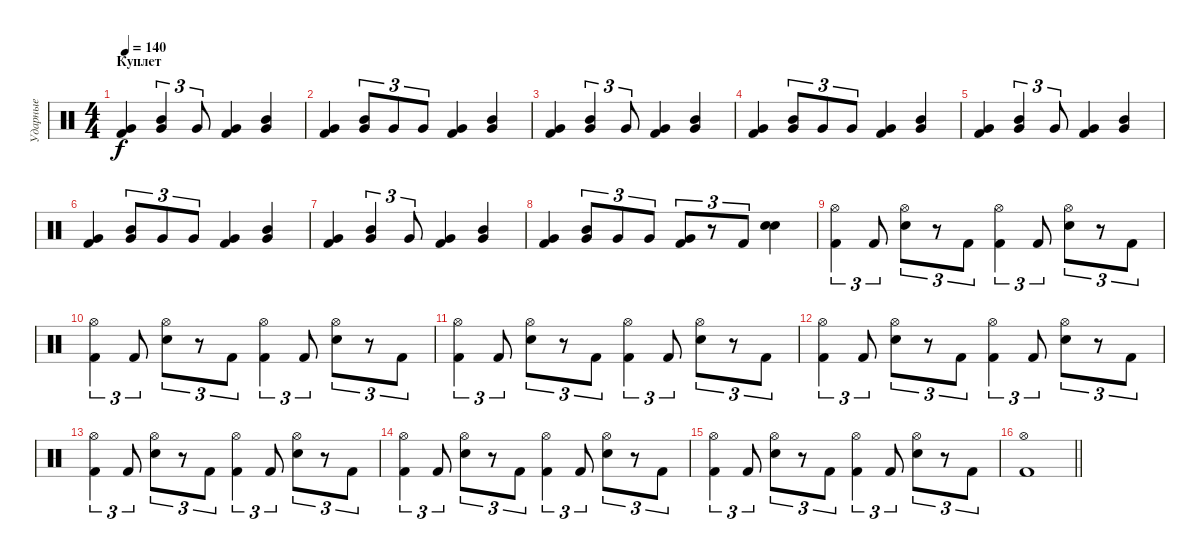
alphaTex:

\track ("Ударные" "Ударные") {instrument percussion}
\staff {score}
\articulation defaults
\ts (4 4)
\section ("" "Куплет")
\tempo 140
\clef neutral
\ks c
("Very Low Tom (hit)" "Kick (hit) 2").4{dy f} ("Mid Tom (hit)" "Very Low Tom (hit)").4{tu (3 2)} "Very Low Tom (hit)".8{tu (3 2)} ("Very Low Tom (hit)" "Kick (hit) 2").4 ("Mid Tom (hit)" "Very Low Tom (hit)").4 |
("Very Low Tom (hit)" "Kick (hit) 2").4 ("Mid Tom (hit)" "Very Low Tom (hit)").8{tu (3 2)} "Very Low Tom (hit)".8{tu (3 2)} "Very Low Tom (hit)".8{tu (3 2)} ("Very Low Tom (hit)" "Kick (hit) 2").4 ("Mid Tom (hit)" "Very Low Tom (hit)").4 |
("Very Low Tom (hit)" "Kick (hit) 2").4 ("Mid Tom (hit)" "Very Low Tom (hit)").4{tu (3 2)} "Very Low Tom (hit)".8{tu (3 2)} ("Very Low Tom (hit)" "Kick (hit) 2").4 ("Mid Tom (hit)" "Very Low Tom (hit)").4 |
("Very Low Tom (hit)" "Kick (hit) 2").4 ("Mid Tom (hit)" "Very Low Tom (hit)").8{tu (3 2)} "Very Low Tom (hit)".8{tu (3 2)} "Very Low Tom (hit)".8{tu (3 2)} ("Very Low Tom (hit)" "Kick (hit) 2").4 ("Mid Tom (hit)" "Very Low Tom (hit)").4 |
("Very Low Tom (hit)" "Kick (hit) 2").4 ("Mid Tom (hit)" "Very Low Tom (hit)").4{tu (3 2)} "Very Low Tom (hit)".8{tu (3 2)} ("Very Low Tom (hit)" "Kick (hit) 2").4 ("Mid Tom (hit)" "Very Low Tom (hit)").4 |
("Very Low Tom (hit)" "Kick (hit) 2").4 ("Mid Tom (hit)" "Very Low Tom (hit)").8{tu (3 2)} "Very Low Tom (hit)".8{tu (3 2)} "Very Low Tom (hit)".8{tu (3 2)} ("Very Low Tom (hit)" "Kick (hit) 2").4 ("Mid Tom (hit)" "Very Low Tom (hit)").4 |
("Very Low Tom (hit)" "Kick (hit) 2").4 ("Mid Tom (hit)" "Very Low Tom (hit)").4{tu (3 2)} "Very Low Tom (hit)".8{tu (3 2)} ("Very Low Tom (hit)" "Kick (hit) 2").4 ("Mid Tom (hit)" "Very Low Tom (hit)").4 |
("Very Low Tom (hit)" "Kick (hit) 2").4 ("Mid Tom (hit)" "Very Low Tom (hit)").8{tu (3 2)} "Very Low Tom (hit)".8{tu (3 2)} "Very Low Tom (hit)".8{tu (3 2)} ("Very Low Tom (hit)" "Kick (hit) 2").8{tu (3 2)} r.8{tu (3 2)} "Kick (hit) 2".8{tu (3 2)} ("Electric Snare (hit)" "Electric Snare (hit)").4 |
("Hi-Hat (open)" "Kick (hit) 2").4{tu (3 2)} "Kick (hit) 2".8{tu (3 2)} ("Hi-Hat (open)" "Electric Snare (hit)").8{tu (3 2)} r.8{tu (3 2)} "Kick (hit) 2".8{tu (3 2)} ("Hi-Hat (open)" "Kick (hit) 2").4{tu (3 2)} "Kick (hit) 2".8{tu (3 2)} ("Hi-Hat (open)" "Electric Snare (hit)").8{tu (3 2)} r.8{tu (3 2)} "Kick (hit) 2".8{tu (3 2)} |
("Hi-Hat (open)" "Kick (hit) 2").4{tu (3 2)} "Kick (hit) 2".8{tu (3 2)} ("Hi-Hat (open)" "Electric Snare (hit)").8{tu (3 2)} r.8{tu (3 2)} "Kick (hit) 2".8{tu (3 2)} ("Hi-Hat (open)" "Kick (hit) 2").4{tu (3 2)} "Kick (hit) 2".8{tu (3 2)} ("Hi-Hat (open)" "Electric Snare (hit)").8{tu (3 2)} r.8{tu (3 2)} "Kick (hit) 2".8{tu (3 2)} |
("Hi-Hat (open)" "Kick (hit) 2").4{tu (3 2)} "Kick (hit) 2".8{tu (3 2)} ("Hi-Hat (open)" "Electric Snare (hit)").8{tu (3 2)} r.8{tu (3 2)} "Kick (hit) 2".8{tu (3 2)} ("Hi-Hat (open)" "Kick (hit) 2").4{tu (3 2)} "Kick (hit) 2".8{tu (3 2)} ("Hi-Hat (open)" "Electric Snare (hit)").8{tu (3 2)} r.8{tu (3 2)} "Kick (hit) 2".8{tu (3 2)} |
("Hi-Hat (open)" "Kick (hit) 2").4{tu (3 2)} "Kick (hit) 2".8{tu (3 2)} ("Hi-Hat (open)" "Electric Snare (hit)").8{tu (3 2)} r.8{tu (3 2)} "Kick (hit) 2".8{tu (3 2)} ("Hi-Hat (open)" "Kick (hit) 2").4{tu (3 2)} "Kick (hit) 2".8{tu (3 2)} ("Hi-Hat (open)" "Electric Snare (hit)").8{tu (3 2)} r.8{tu (3 2)} "Kick (hit) 2".8{tu (3 2)} |
("Hi-Hat (open)" "Kick (hit) 2").4{tu (3 2)} "Kick (hit) 2".8{tu (3 2)} ("Hi-Hat (open)" "Electric Snare (hit)").8{tu (3 2)} r.8{tu (3 2)} "Kick (hit) 2".8{tu (3 2)} ("Hi-Hat (open)" "Kick (hit) 2").4{tu (3 2)} "Kick (hit) 2".8{tu (3 2)} ("Hi-Hat (open)" "Electric Snare (hit)").8{tu (3 2)} r.8{tu (3 2)} "Kick (hit) 2".8{tu (3 2)} |
("Hi-Hat (open)" "Kick (hit) 2").4{tu (3 2)} "Kick (hit) 2".8{tu (3 2)} ("Hi-Hat (open)" "Electric Snare (hit)").8{tu (3 2)} r.8{tu (3 2)} "Kick (hit) 2".8{tu (3 2)} ("Hi-Hat (open)" "Kick (hit) 2").4{tu (3 2)} "Kick (hit) 2".8{tu (3 2)} ("Hi-Hat (open)" "Electric Snare (hit)").8{tu (3 2)} r.8{tu (3 2)} "Kick (hit) 2".8{tu (3 2)} |
("Hi-Hat (open)" "Kick (hit) 2").4{tu (3 2)} "Kick (hit) 2".8{tu (3 2)} ("Hi-Hat (open)" "Electric Snare (hit)").8{tu (3 2)} r.8{tu (3 2)} "Kick (hit) 2".8{tu (3 2)} ("Hi-Hat (open)" "Kick (hit) 2").4{tu (3 2)} "Kick (hit) 2".8{tu (3 2)} ("Hi-Hat (open)" "Electric Snare (hit)").8{tu (3 2)} r.8{tu (3 2)} "Kick (hit) 2".8{tu (3 2)} |
\barLineRight lightlight
("Hi-Hat (open)" "Kick (hit) 2").1
